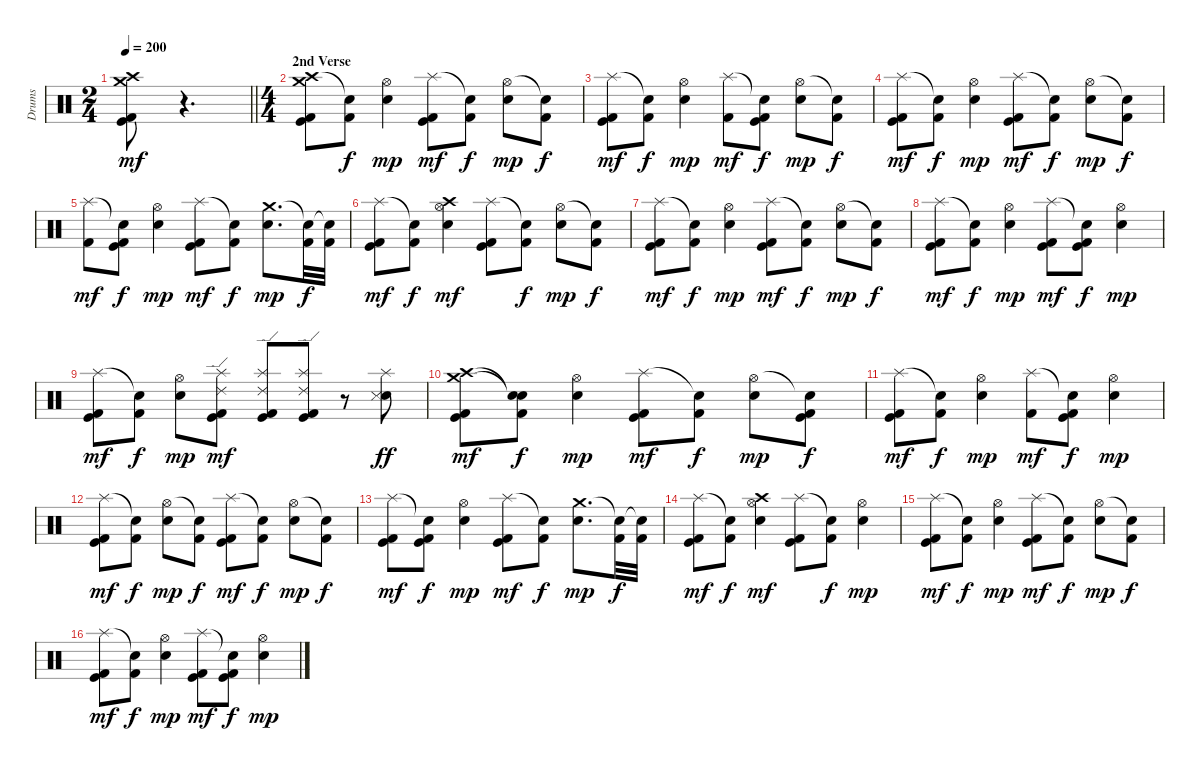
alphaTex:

\track ("Drums" "Drums") {instrument percussion}
\staff {score}
\articulation defaults
\ts (2 4)
\tempo 200
\clef neutral
\barLineRight lightlight
\ks c
("Crash high (hit)" "Crash medium (hit)" "Kick (hit)" "Kick (hit) 2").8{dy mf} r.4{d} |
\ts (4 4)
\section ("" "2nd Verse")
("Crash high (hit)" "Crash medium (hit)" "Kick (hit)" "Kick (hit) 2").8 ("Snare (hit)"{t} "Kick (hit) 2").8{dy f} ("Hi-Hat (open)" "Snare (hit) 2").4{dy mp} ("Splash (hit)" "Kick (hit)" "Kick (hit) 2").8{dy mf} ("Snare (hit)"{t} "Kick (hit) 2").8{dy f} ("Hi-Hat (open)" "Snare (hit) 2").8{dy mp} ("Snare (hit)"{t} "Kick (hit) 2").8{dy f} |
("Splash (hit)" "Kick (hit)" "Kick (hit) 2").8{dy mf} ("Snare (hit)"{t} "Kick (hit) 2").8{dy f} ("Hi-Hat (open)" "Snare (hit) 2").4{dy mp} ("Splash (hit)" "Kick (hit) 2").8{dy mf} ("Snare (hit)"{t} "Kick (hit)" "Kick (hit) 2").8{dy f} ("Hi-Hat (open)" "Snare (hit) 2").8{dy mp} ("Snare (hit)"{t} "Kick (hit) 2").8{dy f} |
("Splash (hit)" "Kick (hit)" "Kick (hit) 2").8{dy mf} ("Snare (hit)"{t} "Kick (hit) 2").8{dy f} ("Hi-Hat (open)" "Snare (hit) 2").4{dy mp} ("Splash (hit)" "Kick (hit)" "Kick (hit) 2").8{dy mf} ("Snare (hit)"{t} "Kick (hit) 2").8{dy f} ("Hi-Hat (open)" "Snare (hit) 2").8{dy mp} ("Snare (hit)"{t} "Kick (hit) 2").8{dy f} |
("Splash (hit)" "Kick (hit) 2").8{dy mf} ("Snare (hit)"{t} "Kick (hit)" "Kick (hit) 2").8{dy f} ("Hi-Hat (open)" "Snare (hit) 2").4{dy mp} ("Splash (hit)" "Kick (hit)" "Kick (hit) 2").8{dy mf} ("Snare (hit)"{t} "Kick (hit) 2").8{dy f} ("Crash medium (hit)" "Snare (hit) 2").8{d dy mp} ("Snare (hit)"{t} "Kick (hit) 2").32{dy f} ("Snare (hit)"{t} "Kick (hit) 2").32 |
("Splash (hit)" "Kick (hit)" "Kick (hit) 2").8{dy mf} ("Snare (hit)"{t} "Kick (hit) 2").8{dy f} ("Crash high (hit)" "Hi-Hat (open)" "Snare (hit) 2").4{dy mf} ("Splash (hit)" "Kick (hit)" "Kick (hit) 2").8 ("Snare (hit)"{t} "Kick (hit) 2").8{dy f} ("Hi-Hat (open)" "Snare (hit) 2").8{dy mp} ("Snare (hit)"{t} "Kick (hit) 2").8{dy f} |
("Splash (hit)" "Kick (hit)" "Kick (hit) 2").8{dy mf} ("Snare (hit)"{t} "Kick (hit) 2").8{dy f} ("Hi-Hat (open)" "Snare (hit) 2").4{dy mp} ("Splash (hit)" "Kick (hit)" "Kick (hit) 2").8{dy mf} ("Snare (hit)"{t} "Kick (hit) 2").8{dy f} ("Hi-Hat (open)" "Snare (hit) 2").8{dy mp} ("Snare (hit)"{t} "Kick (hit) 2").8{dy f} |
("Splash (hit)" "Kick (hit)" "Kick (hit) 2").8{dy mf} ("Snare (hit)"{t} "Kick (hit) 2").8{dy f} ("Hi-Hat (open)" "Snare (hit) 2").4{dy mp} ("Splash (hit)" "Kick (hit)" "Kick (hit) 2").8{dy mf} ("Snare (hit)"{t} "Kick (hit)" "Kick (hit) 2").8{dy f} ("Hi-Hat (open)" "Snare (hit) 2").4{dy mp} |
("Splash (hit)" "Kick (hit)" "Kick (hit) 2").8{dy mf} ("Snare (hit)"{t} "Kick (hit) 2").8{dy f} ("Hi-Hat (open)" "Snare (hit) 2").8{dy mp} ("Splash (hit)" "Ride (edge) 2" "Kick (hit)" "Kick (hit) 2").8{dy mf} ("Splash (hit)" "Ride (edge) 2" "Kick (hit)" "Kick (hit) 2").8 ("Splash (hit)" "Ride (edge) 2" "Kick (hit)" "Kick (hit) 2").8 r.8 ("Splash (hit)" "Snare (hit) 2" "Snare (side stick) 3").8{dy ff} |
("Crash high (hit)" "Crash medium (hit)" "Kick (hit)" "Kick (hit) 2").8{dy mf} ("Snare (hit)"{t} "Snare (hit)"{t} "Kick (hit) 2").8{dy f} ("Hi-Hat (open)" "Snare (hit) 2").4{dy mp} ("Splash (hit)" "Kick (hit)" "Kick (hit) 2").8{dy mf} ("Snare (hit)"{t} "Kick (hit) 2").8{dy f} ("Hi-Hat (open)" "Snare (hit) 2").8{dy mp} ("Snare (hit)"{t} "Kick (hit) 2" "Kick (hit)").8{dy f} |
("Splash (hit)" "Kick (hit)" "Kick (hit) 2").8{dy mf} ("Snare (hit)"{t} "Kick (hit) 2").8{dy f} ("Hi-Hat (open)" "Snare (hit) 2").4{dy mp} ("Splash (hit)" "Kick (hit) 2").8{dy mf} ("Snare (hit)"{t} "Kick (hit)" "Kick (hit) 2").8{dy f} ("Hi-Hat (open)" "Snare (hit) 2").4{dy mp} |
("Splash (hit)" "Kick (hit)" "Kick (hit) 2").8{dy mf} ("Snare (hit)"{t} "Kick (hit) 2").8{dy f} ("Hi-Hat (open)" "Snare (hit) 2").8{dy mp} ("Snare (hit)"{t} "Kick (hit) 2").8{dy f} ("Splash (hit)" "Kick (hit)" "Kick (hit) 2").8{dy mf} ("Snare (hit)"{t} "Kick (hit) 2").8{dy f} ("Hi-Hat (open)" "Snare (hit) 2").8{dy mp} ("Snare (hit)"{t} "Kick (hit) 2").8{dy f} |
("Splash (hit)" "Kick (hit)" "Kick (hit) 2").8{dy mf} ("Snare (hit)"{t} "Kick (hit)" "Kick (hit) 2").8{dy f} ("Hi-Hat (open)" "Snare (hit) 2").4{dy mp} ("Splash (hit)" "Kick (hit)" "Kick (hit) 2").8{dy mf} ("Snare (hit)"{t} "Kick (hit) 2").8{dy f} ("Crash medium (hit)" "Snare (hit) 2").8{d dy mp} ("Snare (hit)"{t} "Kick (hit) 2").32{dy f} ("Snare (hit)"{t} "Kick (hit) 2").32 |
("Splash (hit)" "Kick (hit)" "Kick (hit) 2").8{dy mf} ("Snare (hit)"{t} "Kick (hit) 2").8{dy f} ("Crash high (hit)" "Hi-Hat (open)" "Snare (hit) 2").4{dy mf} ("Splash (hit)" "Kick (hit)" "Kick (hit) 2").8 ("Snare (hit)"{t} "Kick (hit) 2").8{dy f} ("Hi-Hat (open)" "Snare (hit) 2").4{dy mp} |
("Splash (hit)" "Kick (hit)" "Kick (hit) 2").8{dy mf} ("Snare (hit)"{t} "Kick (hit) 2").8{dy f} ("Hi-Hat (open)" "Snare (hit) 2").4{dy mp} ("Splash (hit)" "Kick (hit)" "Kick (hit) 2").8{dy mf} ("Snare (hit)"{t} "Kick (hit) 2").8{dy f} ("Hi-Hat (open)" "Snare (hit) 2").8{dy mp} ("Snare (hit)"{t} "Kick (hit) 2").8{dy f} |
("Splash (hit)" "Kick (hit)" "Kick (hit) 2").8{dy mf} ("Snare (hit)"{t} "Kick (hit) 2").8{dy f} ("Hi-Hat (open)" "Snare (hit) 2").4{dy mp} ("Splash (hit)" "Kick (hit)" "Kick (hit) 2").8{dy mf} ("Snare (hit)"{t} "Kick (hit)" "Kick (hit) 2").8{dy f} ("Hi-Hat (open)" "Snare (hit) 2").4{dy mp}
